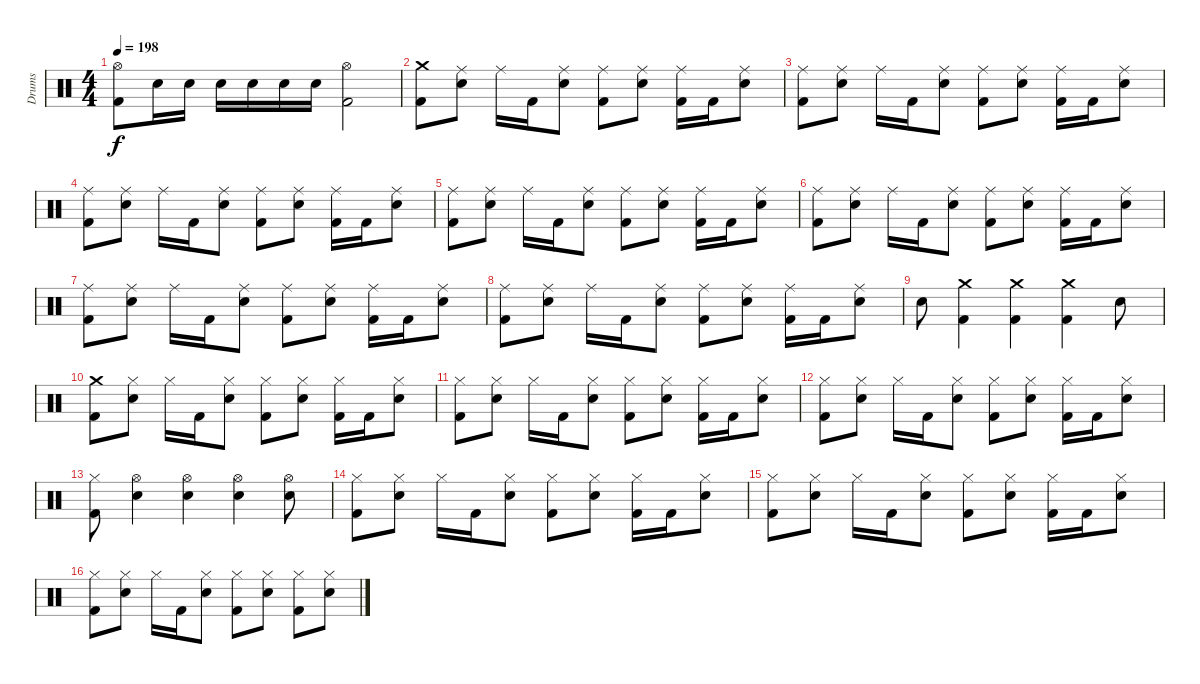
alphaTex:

\track ("Drums" "Drums") {instrument percussion}
\staff {score}
\articulation defaults
\ts (4 4)
\tempo 198
\clef neutral
\ks c
("Hi-Hat (open)" "Kick (hit) 2").8{dy f} "Electric Snare (hit)".16 "Electric Snare (hit)".16 "Electric Snare (hit)".16 "Electric Snare (hit)".16 "Electric Snare (hit)".16 "Electric Snare (hit)".16 ("Hi-Hat (open)" "Kick (hit) 2").2 |
("Crash medium (hit)" "Kick (hit) 2").8 ("Ride (middle)" "Electric Snare (hit)").8 "Ride (middle)".16 "Kick (hit) 2".16 ("Ride (middle)" "Electric Snare (hit)").8 ("Ride (middle)" "Kick (hit) 2").8 ("Ride (middle)" "Electric Snare (hit)").8 ("Ride (middle)" "Kick (hit) 2").16 "Kick (hit) 2".16 ("Ride (middle)" "Electric Snare (hit)").8 |
("Ride (middle)" "Kick (hit) 2").8 ("Ride (middle)" "Electric Snare (hit)").8 "Ride (middle)".16 "Kick (hit) 2".16 ("Ride (middle)" "Electric Snare (hit)").8 ("Ride (middle)" "Kick (hit) 2").8 ("Ride (middle)" "Electric Snare (hit)").8 ("Ride (middle)" "Kick (hit) 2").16 "Kick (hit) 2".16 ("Ride (middle)" "Electric Snare (hit)").8 |
("Ride (middle)" "Kick (hit) 2").8 ("Ride (middle)" "Electric Snare (hit)").8 "Ride (middle)".16 "Kick (hit) 2".16 ("Ride (middle)" "Electric Snare (hit)").8 ("Ride (middle)" "Kick (hit) 2").8 ("Ride (middle)" "Electric Snare (hit)").8 ("Ride (middle)" "Kick (hit) 2").16 "Kick (hit) 2".16 ("Ride (middle)" "Electric Snare (hit)").8 |
("Ride (middle)" "Kick (hit) 2").8 ("Ride (middle)" "Electric Snare (hit)").8 "Ride (middle)".16 "Kick (hit) 2".16 ("Ride (middle)" "Electric Snare (hit)").8 ("Ride (middle)" "Kick (hit) 2").8 ("Ride (middle)" "Electric Snare (hit)").8 ("Ride (middle)" "Kick (hit) 2").16 "Kick (hit) 2".16 ("Ride (middle)" "Electric Snare (hit)").8 |
("Ride (middle)" "Kick (hit) 2").8 ("Ride (middle)" "Electric Snare (hit)").8 "Ride (middle)".16 "Kick (hit) 2".16 ("Ride (middle)" "Electric Snare (hit)").8 ("Ride (middle)" "Kick (hit) 2").8 ("Ride (middle)" "Electric Snare (hit)").8 ("Ride (middle)" "Kick (hit) 2").16 "Kick (hit) 2".16 ("Ride (middle)" "Electric Snare (hit)").8 |
("Ride (middle)" "Kick (hit) 2").8 ("Ride (middle)" "Electric Snare (hit)").8 "Ride (middle)".16 "Kick (hit) 2".16 ("Ride (middle)" "Electric Snare (hit)").8 ("Ride (middle)" "Kick (hit) 2").8 ("Ride (middle)" "Electric Snare (hit)").8 ("Ride (middle)" "Kick (hit) 2").16 "Kick (hit) 2".16 ("Ride (middle)" "Electric Snare (hit)").8 |
("Ride (middle)" "Kick (hit) 2").8 ("Ride (middle)" "Electric Snare (hit)").8 "Ride (middle)".16 "Kick (hit) 2".16 ("Ride (middle)" "Electric Snare (hit)").8 ("Ride (middle)" "Kick (hit) 2").8 ("Ride (middle)" "Electric Snare (hit)").8 ("Ride (middle)" "Kick (hit) 2").16 "Kick (hit) 2".16 ("Ride (middle)" "Electric Snare (hit)").8 |
"Electric Snare (hit)".8 ("Crash medium (hit)" "Kick (hit) 2").4 ("Crash medium (hit)" "Kick (hit) 2").4 ("Crash medium (hit)" "Kick (hit) 2").4 "Snare (hit) 2".8 |
("Crash medium (hit)" "Kick (hit) 2").8 ("Hi-Hat (closed)" "Electric Snare (hit)").8 "Hi-Hat (closed)".16 "Kick (hit) 2".16 ("Hi-Hat (closed)" "Electric Snare (hit)").8 ("Hi-Hat (closed)" "Kick (hit) 2").8 ("Hi-Hat (closed)" "Electric Snare (hit)").8 ("Hi-Hat (closed)" "Kick (hit) 2").16 "Kick (hit) 2".16 ("Hi-Hat (closed)" "Electric Snare (hit)").8 |
("Hi-Hat (closed)" "Kick (hit) 2").8 ("Hi-Hat (closed)" "Electric Snare (hit)").8 "Hi-Hat (closed)".16 "Kick (hit) 2".16 ("Hi-Hat (closed)" "Electric Snare (hit)").8 ("Hi-Hat (closed)" "Kick (hit) 2").8 ("Hi-Hat (closed)" "Electric Snare (hit)").8 ("Hi-Hat (closed)" "Kick (hit) 2").16 "Kick (hit) 2".16 ("Hi-Hat (closed)" "Electric Snare (hit)").8 |
("Hi-Hat (closed)" "Kick (hit) 2").8 ("Hi-Hat (closed)" "Electric Snare (hit)").8 "Hi-Hat (closed)".16 "Kick (hit) 2".16 ("Hi-Hat (closed)" "Electric Snare (hit)").8 ("Hi-Hat (closed)" "Kick (hit) 2").8 ("Hi-Hat (closed)" "Electric Snare (hit)").8 ("Hi-Hat (closed)" "Kick (hit) 2").16 "Kick (hit) 2".16 ("Hi-Hat (closed)" "Electric Snare (hit)").8 |
("Hi-Hat (closed)" "Kick (hit) 2").8 ("Hi-Hat (open)" "Electric Snare (hit)").4 ("Hi-Hat (open)" "Electric Snare (hit)").4 ("Hi-Hat (open)" "Electric Snare (hit)").4 ("Hi-Hat (open)" "Electric Snare (hit)").8 |
("Hi-Hat (closed)" "Kick (hit) 2").8 ("Hi-Hat (closed)" "Electric Snare (hit)").8 "Hi-Hat (closed)".16 "Kick (hit) 2".16 ("Hi-Hat (closed)" "Electric Snare (hit)").8 ("Hi-Hat (closed)" "Kick (hit) 2").8 ("Hi-Hat (closed)" "Electric Snare (hit)").8 ("Hi-Hat (closed)" "Kick (hit) 2").16 "Kick (hit) 2".16 ("Hi-Hat (closed)" "Electric Snare (hit)").8 |
("Hi-Hat (closed)" "Kick (hit) 2").8 ("Hi-Hat (closed)" "Electric Snare (hit)").8 "Hi-Hat (closed)".16 "Kick (hit) 2".16 ("Hi-Hat (closed)" "Electric Snare (hit)").8 ("Hi-Hat (closed)" "Kick (hit) 2").8 ("Hi-Hat (closed)" "Electric Snare (hit)").8 ("Hi-Hat (closed)" "Kick (hit) 2").16 "Kick (hit) 2".16 ("Hi-Hat (closed)" "Electric Snare (hit)").8 |
("Hi-Hat (closed)" "Kick (hit) 2").8 ("Hi-Hat (closed)" "Electric Snare (hit)").8 "Hi-Hat (closed)".16 "Kick (hit) 2".16 ("Hi-Hat (closed)" "Electric Snare (hit)").8 ("Hi-Hat (closed)" "Kick (hit) 2").8 ("Hi-Hat (closed)" "Electric Snare (hit)").8 ("Hi-Hat (closed)" "Kick (hit) 2").8 ("Hi-Hat (closed)" "Electric Snare (hit)").8
